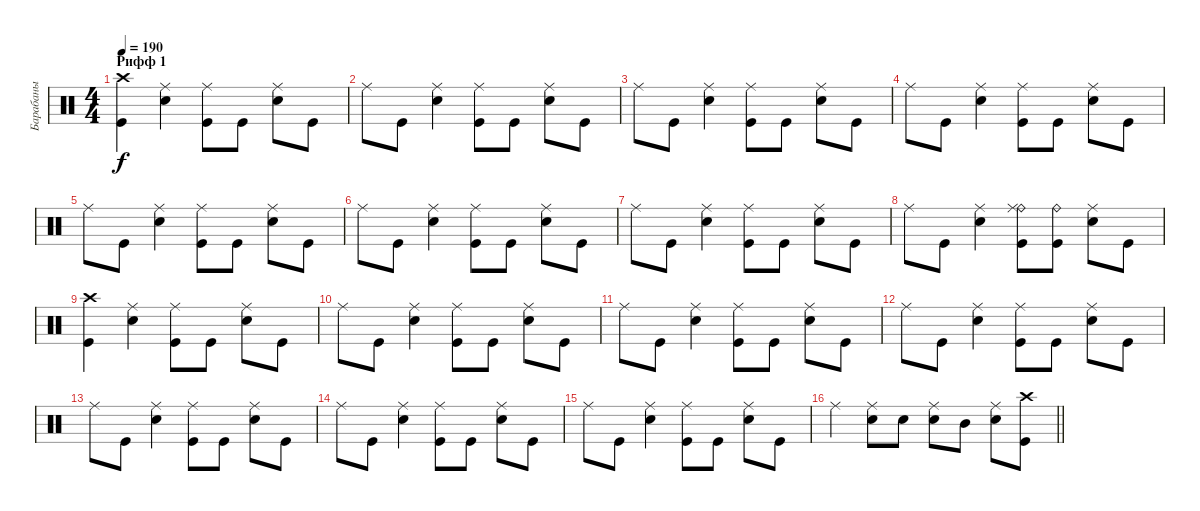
\track ("Барабаны" "Барабаны") {instrument percussion}
\staff {score}
\articulation defaults
\ts (4 4)
\section ("" "Рифф 1")
\tempo 190
\clef neutral
\ks c
("Kick (hit)" "Crash high (hit)").4{dy f} ("Snare (hit) 2" "Ride (middle)").4 ("Kick (hit)" "Ride (middle)").8 "Kick (hit)".8 ("Snare (hit) 2" "Ride (middle)").8 "Kick (hit)".8 |
"Ride (middle)".8 "Kick (hit)".8 ("Snare (hit) 2" "Ride (middle)").4 ("Kick (hit)" "Ride (middle)").8 "Kick (hit)".8 ("Snare (hit) 2" "Ride (middle)").8 "Kick (hit)".8 |
"Ride (middle)".8 "Kick (hit)".8 ("Snare (hit) 2" "Ride (middle)").4 ("Kick (hit)" "Ride (middle)").8 "Kick (hit)".8 ("Snare (hit) 2" "Ride (middle)").8 "Kick (hit)".8 |
"Ride (middle)".8 "Kick (hit)".8 ("Snare (hit) 2" "Ride (middle)").4 ("Kick (hit)" "Ride (middle)").8 "Kick (hit)".8 ("Snare (hit) 2" "Ride (middle)").8 "Kick (hit)".8 |
"Ride (middle)".8 "Kick (hit)".8 ("Snare (hit) 2" "Ride (middle)").4 ("Kick (hit)" "Ride (middle)").8 "Kick (hit)".8 ("Snare (hit) 2" "Ride (middle)").8 "Kick (hit)".8 |
"Ride (middle)".8 "Kick (hit)".8 ("Snare (hit) 2" "Ride (middle)").4 ("Kick (hit)" "Ride (middle)").8 "Kick (hit)".8 ("Snare (hit) 2" "Ride (middle)").8 "Kick (hit)".8 |
"Ride (middle)".8 "Kick (hit)".8 ("Snare (hit) 2" "Ride (middle)").4 ("Kick (hit)" "Ride (middle)").8 "Kick (hit)".8 ("Snare (hit) 2" "Ride (middle)").8 "Kick (hit)".8 |
"Ride (middle)".8 "Kick (hit)".8 ("Snare (hit) 2" "Ride (middle)").4 ("Kick (hit)" "Ride (bell)" "Ride (middle)").8 ("Kick (hit)" "Ride (bell)").8 ("Snare (hit) 2" "Ride (middle)").8 "Kick (hit)".8 |
("Kick (hit)" "Crash high (hit)").4 ("Snare (hit) 2" "Ride (middle)").4 ("Kick (hit)" "Ride (middle)").8 "Kick (hit)".8 ("Snare (hit) 2" "Ride (middle)").8 "Kick (hit)".8 |
"Ride (middle)".8 "Kick (hit)".8 ("Snare (hit) 2" "Ride (middle)").4 ("Kick (hit)" "Ride (middle)").8 "Kick (hit)".8 ("Snare (hit) 2" "Ride (middle)").8 "Kick (hit)".8 |
"Ride (middle)".8 "Kick (hit)".8 ("Snare (hit) 2" "Ride (middle)").4 ("Kick (hit)" "Ride (middle)").8 "Kick (hit)".8 ("Snare (hit) 2" "Ride (middle)").8 "Kick (hit)".8 |
"Ride (middle)".8 "Kick (hit)".8 ("Snare (hit) 2" "Ride (middle)").4 ("Kick (hit)" "Ride (middle)").8 "Kick (hit)".8 ("Snare (hit) 2" "Ride (middle)").8 "Kick (hit)".8 |
"Ride (middle)".8 "Kick (hit)".8 ("Snare (hit) 2" "Ride (middle)").4 ("Kick (hit)" "Ride (middle)").8 "Kick (hit)".8 ("Snare (hit) 2" "Ride (middle)").8 "Kick (hit)".8 |
"Ride (middle)".8 "Kick (hit)".8 ("Snare (hit) 2" "Ride (middle)").4 ("Kick (hit)" "Ride (middle)").8 "Kick (hit)".8 ("Snare (hit) 2" "Ride (middle)").8 "Kick (hit)".8 |
"Ride (middle)".8 "Kick (hit)".8 ("Snare (hit) 2" "Ride (middle)").4 ("Kick (hit)" "Ride (middle)").8 "Kick (hit)".8 ("Snare (hit) 2" "Ride (middle)").8 "Kick (hit)".8 |
\barLineRight lightlight "Ride (middle)".4
("Snare (hit) 2" "Ride (middle)").8 "Snare (hit) 2".8 ("Snare (hit) 2" "Ride (middle)").8 "Mid Tom (hit)".8 ("Snare (hit) 2" "Ride (middle)").8 ("Kick (hit)" "Crash high (hit)").8
